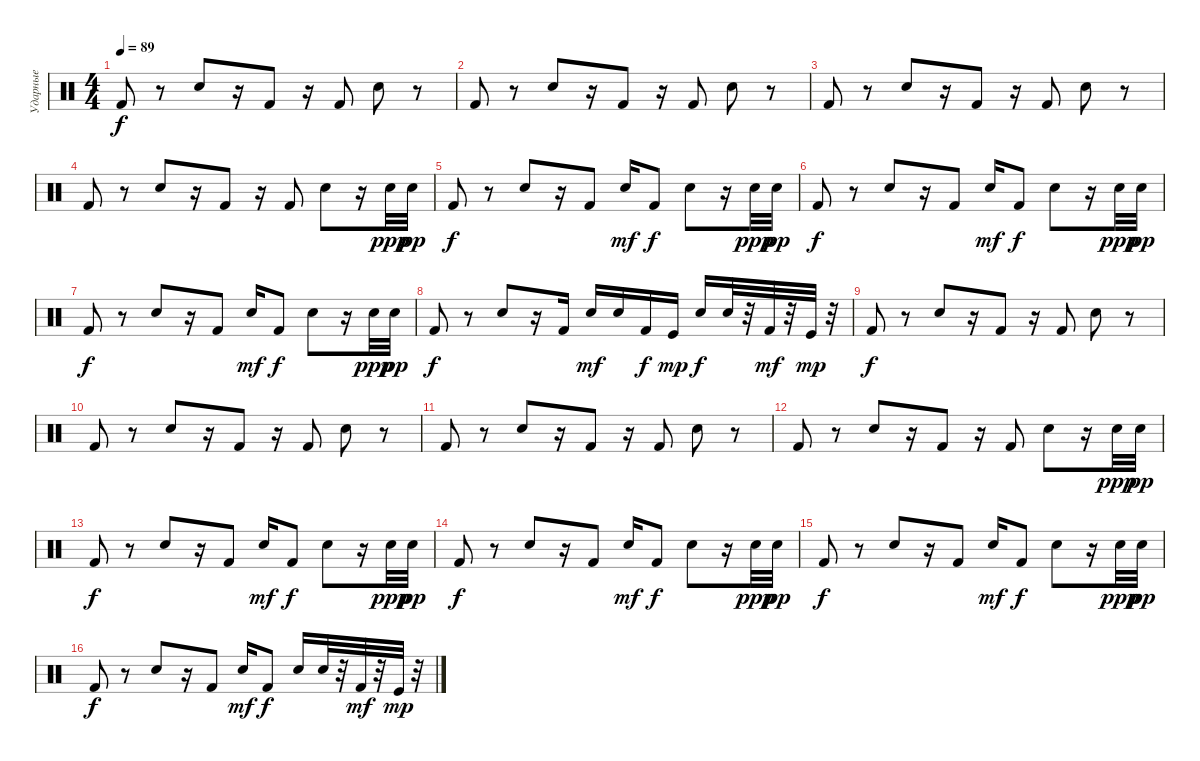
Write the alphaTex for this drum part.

\track ("Ударные " "Ударные ") {instrument percussion}
\staff {score}
\articulation defaults
\ts (4 4)
\tempo 89
\clef neutral
\ks c "Kick (hit) 2".8{dy f}
r.8 "Snare (hit) 2".8 r.16 "Kick (hit) 2".8 r.16 "Kick (hit) 2".8 "Snare (hit) 2".8 r.8 |
"Kick (hit) 2".8 r.8 "Snare (hit) 2".8 r.16 "Kick (hit) 2".8 r.16 "Kick (hit) 2".8 "Snare (hit) 2".8 r.8 |
"Kick (hit) 2".8 r.8 "Snare (hit) 2".8 r.16 "Kick (hit) 2".8 r.16 "Kick (hit) 2".8 "Snare (hit) 2".8 r.8 |
"Kick (hit) 2".8 r.8 "Snare (hit) 2".8 r.16 "Kick (hit) 2".8 r.16 "Kick (hit) 2".8 "Snare (hit) 2".8 r.16 "Snare (hit) 2".32{dy ppp} "Snare (hit) 2".32{dy pp} |
"Kick (hit) 2".8{dy f} r.8 "Snare (hit) 2".8 r.16 "Kick (hit) 2".8 "Snare (hit) 2".16{dy mf} "Kick (hit) 2".8{dy f} "Snare (hit) 2".8 r.16 "Snare (hit) 2".32{dy ppp} "Snare (hit) 2".32{dy pp} |
"Kick (hit) 2".8{dy f} r.8 "Snare (hit) 2".8 r.16 "Kick (hit) 2".8 "Snare (hit) 2".16{dy mf} "Kick (hit) 2".8{dy f} "Snare (hit) 2".8 r.16 "Snare (hit) 2".32{dy ppp} "Snare (hit) 2".32{dy pp} |
"Kick (hit) 2".8{dy f} r.8 "Snare (hit) 2".8 r.16 "Kick (hit) 2".8 "Snare (hit) 2".16{dy mf} "Kick (hit) 2".8{dy f} "Snare (hit) 2".8 r.16 "Snare (hit) 2".32{dy ppp} "Snare (hit) 2".32{dy pp} |
"Kick (hit) 2".8{dy f} r.8 "Snare (hit) 2".8 r.16 "Kick (hit) 2".16 "Snare (hit) 2".16{dy mf} "Snare (hit) 2".16 "Kick (hit) 2".16{dy f} "Kick (hit)".16{dy mp} "Snare (hit) 2".16{dy f} "Snare (hit) 2".32 r.32 "Kick (hit) 2".32{dy mf} r.32 "Kick (hit)".32{dy mp} r.32 |
"Kick (hit) 2".8{dy f} r.8 "Snare (hit) 2".8 r.16 "Kick (hit) 2".8 r.16 "Kick (hit) 2".8 "Snare (hit) 2".8 r.8 |
"Kick (hit) 2".8 r.8 "Snare (hit) 2".8 r.16 "Kick (hit) 2".8 r.16 "Kick (hit) 2".8 "Snare (hit) 2".8 r.8 |
"Kick (hit) 2".8 r.8 "Snare (hit) 2".8 r.16 "Kick (hit) 2".8 r.16 "Kick (hit) 2".8 "Snare (hit) 2".8 r.8 |
"Kick (hit) 2".8 r.8 "Snare (hit) 2".8 r.16 "Kick (hit) 2".8 r.16 "Kick (hit) 2".8 "Snare (hit) 2".8 r.16 "Snare (hit) 2".32{dy ppp} "Snare (hit) 2".32{dy pp} |
"Kick (hit) 2".8{dy f} r.8 "Snare (hit) 2".8 r.16 "Kick (hit) 2".8 "Snare (hit) 2".16{dy mf} "Kick (hit) 2".8{dy f} "Snare (hit) 2".8 r.16 "Snare (hit) 2".32{dy ppp} "Snare (hit) 2".32{dy pp} |
"Kick (hit) 2".8{dy f} r.8 "Snare (hit) 2".8 r.16 "Kick (hit) 2".8 "Snare (hit) 2".16{dy mf} "Kick (hit) 2".8{dy f} "Snare (hit) 2".8 r.16 "Snare (hit) 2".32{dy ppp} "Snare (hit) 2".32{dy pp} |
"Kick (hit) 2".8{dy f} r.8 "Snare (hit) 2".8 r.16 "Kick (hit) 2".8 "Snare (hit) 2".16{dy mf} "Kick (hit) 2".8{dy f} "Snare (hit) 2".8 r.16 "Snare (hit) 2".32{dy ppp} "Snare (hit) 2".32{dy pp} |
"Kick (hit) 2".8{dy f} r.8 "Snare (hit) 2".8 r.16 "Kick (hit) 2".8 "Snare (hit) 2".16{dy mf} "Kick (hit) 2".8{dy f} "Snare (hit) 2".16 "Snare (hit) 2".32 r.32 "Kick (hit) 2".32{dy mf} r.32 "Kick (hit)".32{dy mp} r.32
